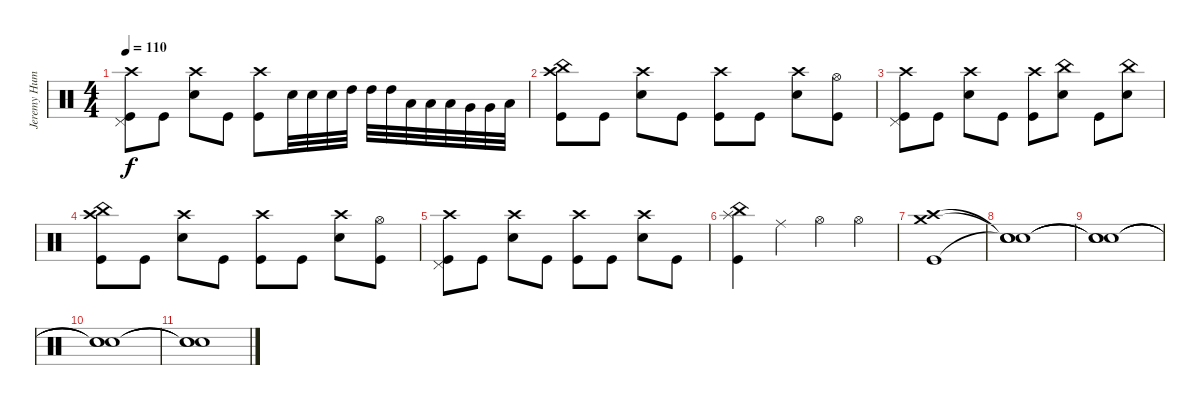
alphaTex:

\track ("Jeremy Hummel" "Jeremy Hum") {instrument percussion}
\staff {score}
\articulation defaults
\ts (4 4)
\tempo 110
\clef neutral
\ks c
("Crash high (hit)" "Pedal Hi-Hat (hit)" "Kick (hit)").8{dy f} "Kick (hit)".8 ("Crash high (hit)" "Electric Snare (hit)").8 "Kick (hit)".8 ("Crash high (hit)" "Kick (hit)").8 "Electric Snare (hit)".32 "Electric Snare (hit)".32 "Electric Snare (hit)".32 "High Tom (hit)".32 "High Tom (hit)".32 "High Tom (hit)".32 "Low Tom (hit)".32 "Low Tom (hit)".32 "Low Tom (hit)".32 "Very Low Tom (hit)".32 "Very Low Tom (hit)".32 "Low Floor Tom (hit)".32 |
("China (hit)" "Crash high (hit)" "Kick (hit)").8 "Kick (hit)".8 ("Crash high (hit)" "Electric Snare (hit)").8 "Kick (hit)".8 ("Crash high (hit)" "Kick (hit)").8 "Kick (hit)".8 ("Crash high (hit)" "Electric Snare (hit)").8 ("Hi-Hat (open)" "Kick (hit)").8 |
("Crash high (hit)" "Pedal Hi-Hat (hit)" "Kick (hit)").8 "Kick (hit)".8 ("Crash high (hit)" "Electric Snare (hit)").8 "Kick (hit)".8 ("Crash high (hit)" "Kick (hit)").8 ("China (hit)" "Electric Snare (hit)").8 "Kick (hit)".8 ("China (hit)" "Electric Snare (hit)").8 |
("China (hit)" "Crash high (hit)" "Kick (hit)").8 "Kick (hit)".8 ("Crash high (hit)" "Electric Snare (hit)").8 "Kick (hit)".8 ("Crash high (hit)" "Kick (hit)").8 "Kick (hit)".8 ("Crash high (hit)" "Electric Snare (hit)").8 ("Hi-Hat (open)" "Kick (hit)").8 |
("Crash high (hit)" "Pedal Hi-Hat (hit)" "Kick (hit)").8 "Kick (hit)".8 ("Crash high (hit)" "Electric Snare (hit)").8 "Kick (hit)".8 ("Crash high (hit)" "Kick (hit)").8 "Kick (hit)".8 ("Crash high (hit)" "Electric Snare (hit)").8 "Kick (hit)".8 |
("China (hit)" "Splash (hit)" "Kick (hit)").4 "Ride (middle)".4 "Hi-Hat (open)".4 "Hi-Hat (open)".4 |
("Crash high (hit)" "Crash medium (hit)" "Kick (hit)").1 |
("Snare (hit)"{t} "Snare (hit)"{t} "Snare (hit)"{t}).1{volume 0} |
("Snare (hit)"{t} "Snare (hit)"{t} "Snare (hit)"{t}).1 |
("Snare (hit)"{t} "Snare (hit)"{t} "Snare (hit)"{t}).1 |
("Snare (hit)"{t} "Snare (hit)"{t} "Snare (hit)"{t}).1
